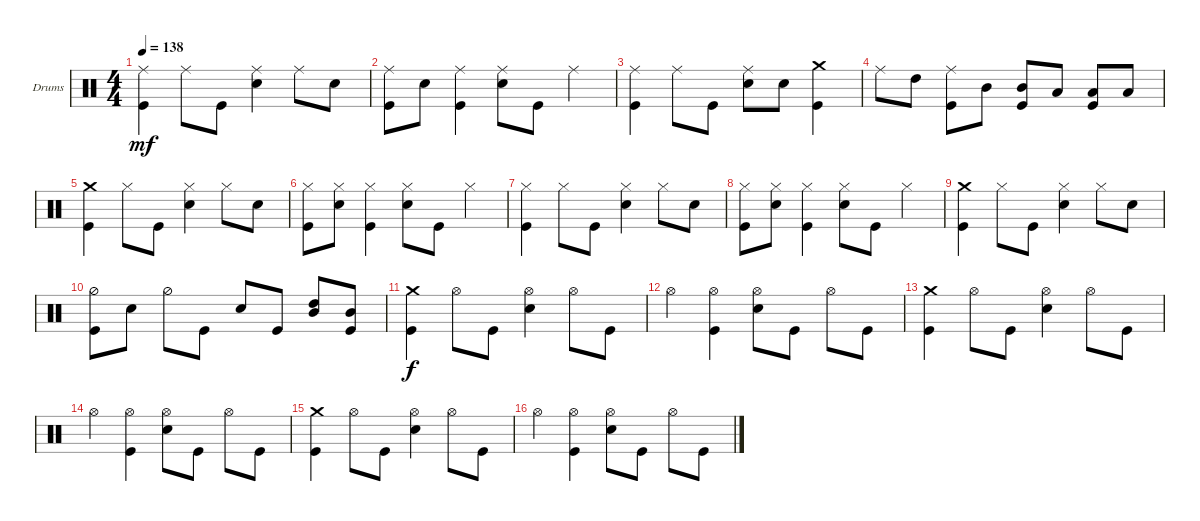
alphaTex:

\defaultSystemsLayout 4
\bracketExtendMode groupsimilarinstruments
\firstSystemTrackNameOrientation horizontal
\otherSystemsTrackNameOrientation horizontal
\track ("Drumkit" "Drums") {instrument percussion}
\staff {score}
\articulation defaults
\ts (4 4)
\tempo 138
\clef neutral
\ks c
("Kick (hit)" "Ride (middle)").4{dy mf} "Ride (middle)".8 "Kick (hit)".8 ("Ride (middle)" "Snare (hit) 2").4 "Ride (middle)".8 "Snare (hit) 2".8 |
("Kick (hit)" "Ride (middle)").8 "Snare (hit) 2".8 ("Ride (middle)" "Kick (hit)").4 ("Ride (middle)" "Snare (hit) 2").8 "Kick (hit)".8 "Ride (middle)".4 |
("Kick (hit)" "Ride (middle)").4 "Ride (middle)".8 "Kick (hit)".8 ("Ride (middle)" "Snare (hit) 2").8 "Snare (hit) 2".8 ("Crash medium (hit)" "Kick (hit)").4 |
"Ride (middle)".8 "High Tom (hit)".8 ("Ride (middle)" "Kick (hit)").8 "Mid Tom (hit)".8 ("Mid Tom (hit)" "Kick (hit)").8 "Low Tom (hit)".8 ("Low Tom (hit)" "Kick (hit)").8 "Low Tom (hit)".8 |
("Kick (hit)" "Crash medium (hit)").4 "Hi-Hat (closed)".8 "Kick (hit)".8 ("Snare (hit) 2" "Hi-Hat (closed)").4 "Hi-Hat (closed)".8 "Snare (hit) 2".8 |
("Kick (hit)" "Hi-Hat (closed)").8 ("Snare (hit) 2" "Hi-Hat (closed)").8 ("Kick (hit)" "Hi-Hat (closed)").4 ("Snare (hit) 2" "Hi-Hat (closed)").8 "Kick (hit)".8 "Hi-Hat (closed)".4 |
("Kick (hit)" "Hi-Hat (closed)").4 "Hi-Hat (closed)".8 "Kick (hit)".8 ("Snare (hit) 2" "Hi-Hat (closed)").4 "Hi-Hat (closed)".8 "Snare (hit) 2".8 |
("Kick (hit)" "Hi-Hat (closed)").8 ("Snare (hit) 2" "Hi-Hat (closed)").8 ("Kick (hit)" "Hi-Hat (closed)").4 ("Snare (hit) 2" "Hi-Hat (closed)").8 "Kick (hit)".8 "Hi-Hat (closed)".4 |
("Kick (hit)" "Crash medium (hit)").4 "Hi-Hat (closed)".8 "Kick (hit)".8 ("Snare (hit) 2" "Hi-Hat (closed)").4 "Hi-Hat (closed)".8 "Snare (hit) 2".8 |
("Kick (hit)" "Hi-Hat (half)").8 "Snare (hit) 2".8 "Hi-Hat (half)".8 "Kick (hit)".8 "Snare (hit) 2".8 "Kick (hit)".8 ("High Tom (hit)" "Mid Tom (hit)").8 ("Mid Tom (hit)" "Kick (hit)").8 |
("Kick (hit)" "Crash medium (hit)").4{dy f} "Hi-Hat (open)".8 "Kick (hit)".8 ("Hi-Hat (open)" "Snare (hit) 2").4 "Hi-Hat (open)".8 "Kick (hit)".8 |
"Hi-Hat (open)".4 ("Hi-Hat (open)" "Kick (hit)").4 ("Hi-Hat (open)" "Snare (hit) 2").8 "Kick (hit)".8 "Hi-Hat (open)".8 "Kick (hit)".8 |
("Kick (hit)" "Crash medium (hit)").4 "Hi-Hat (open)".8 "Kick (hit)".8 ("Hi-Hat (open)" "Snare (hit) 2").4 "Hi-Hat (open)".8 "Kick (hit)".8 |
"Hi-Hat (open)".4 ("Hi-Hat (open)" "Kick (hit)").4 ("Hi-Hat (open)" "Snare (hit) 2").8 "Kick (hit)".8 "Hi-Hat (open)".8 "Kick (hit)".8 |
("Kick (hit)" "Crash medium (hit)").4 "Hi-Hat (open)".8 "Kick (hit)".8 ("Hi-Hat (open)" "Snare (hit) 2").4 "Hi-Hat (open)".8 "Kick (hit)".8 |
"Hi-Hat (open)".4 ("Hi-Hat (open)" "Kick (hit)").4 ("Hi-Hat (open)" "Snare (hit) 2").8 "Kick (hit)".8 "Hi-Hat (open)".8 "Kick (hit)".8
